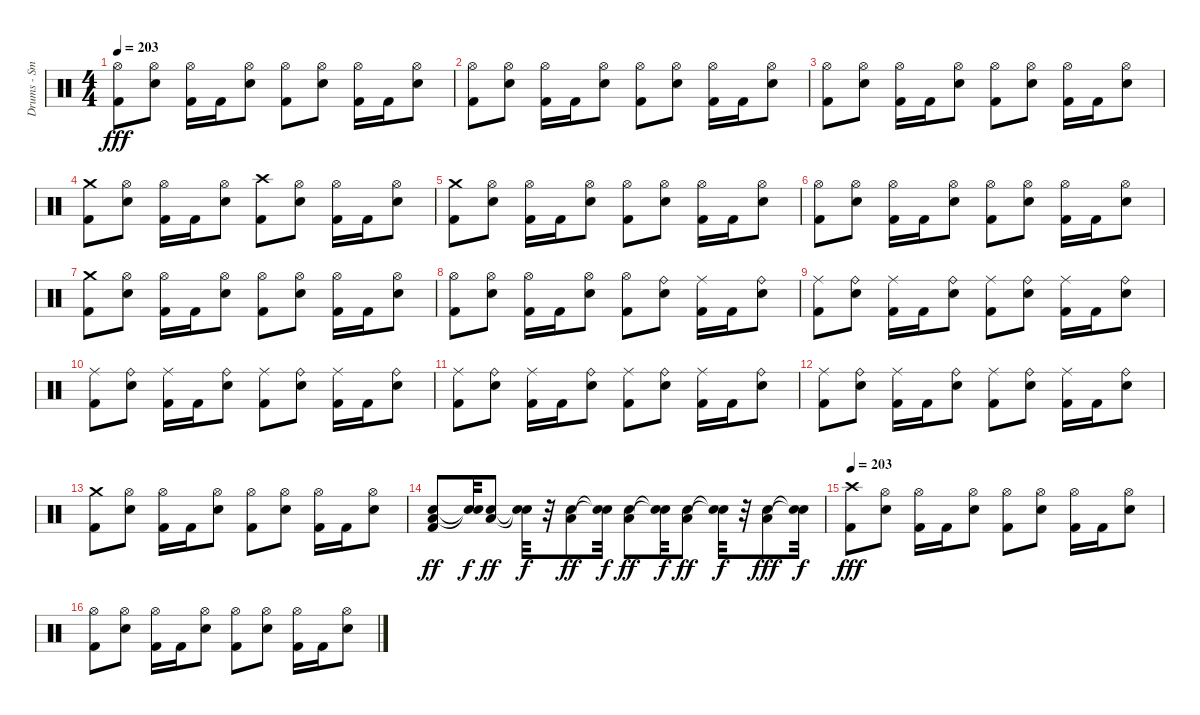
\track ("Drums - Smelly" "Drums - Sm") {instrument percussion}
\staff {score}
\articulation defaults
\ts (4 4)
\tempo 203
\clef neutral
\ks c
("Kick (hit) 2" "Hi-Hat (open)").8{dy fff} ("Electric Snare (hit)" "Hi-Hat (open)").8 ("Kick (hit) 2" "Hi-Hat (open)").16 "Kick (hit) 2".16 ("Electric Snare (hit)" "Hi-Hat (open)").8 ("Kick (hit) 2" "Hi-Hat (open)").8 ("Electric Snare (hit)" "Hi-Hat (open)").8 ("Kick (hit) 2" "Hi-Hat (open)").16 "Kick (hit) 2".16 ("Electric Snare (hit)" "Hi-Hat (open)").8 |
("Kick (hit) 2" "Hi-Hat (open)").8 ("Electric Snare (hit)" "Hi-Hat (open)").8 ("Kick (hit) 2" "Hi-Hat (open)").16 "Kick (hit) 2".16 ("Electric Snare (hit)" "Hi-Hat (open)").8 ("Kick (hit) 2" "Hi-Hat (open)").8 ("Electric Snare (hit)" "Hi-Hat (open)").8 ("Kick (hit) 2" "Hi-Hat (open)").16 "Kick (hit) 2".16 ("Electric Snare (hit)" "Hi-Hat (open)").8 |
("Kick (hit) 2" "Hi-Hat (open)").8 ("Electric Snare (hit)" "Hi-Hat (open)").8 ("Kick (hit) 2" "Hi-Hat (open)").16 "Kick (hit) 2".16 ("Electric Snare (hit)" "Hi-Hat (open)").8 ("Kick (hit) 2" "Hi-Hat (open)").8 ("Electric Snare (hit)" "Hi-Hat (open)").8 ("Kick (hit) 2" "Hi-Hat (open)").16 "Kick (hit) 2".16 ("Electric Snare (hit)" "Hi-Hat (open)").8 |
("Kick (hit) 2" "Crash medium (hit)").8 ("Electric Snare (hit)" "Hi-Hat (open)").8 ("Kick (hit) 2" "Hi-Hat (open)").16 "Kick (hit) 2".16 ("Electric Snare (hit)" "Hi-Hat (open)").8 ("Kick (hit) 2" "Crash high (hit)").8 ("Electric Snare (hit)" "Hi-Hat (open)").8 ("Kick (hit) 2" "Hi-Hat (open)").16 "Kick (hit) 2".16 ("Electric Snare (hit)" "Hi-Hat (open)").8 |
("Kick (hit) 2" "Crash medium (hit)").8 ("Electric Snare (hit)" "Hi-Hat (open)").8 ("Kick (hit) 2" "Hi-Hat (open)").16 "Kick (hit) 2".16 ("Electric Snare (hit)" "Hi-Hat (open)").8 ("Kick (hit) 2" "Hi-Hat (open)").8 ("Electric Snare (hit)" "Hi-Hat (open)").8 ("Kick (hit) 2" "Hi-Hat (open)").16 "Kick (hit) 2".16 ("Electric Snare (hit)" "Hi-Hat (open)").8 |
("Kick (hit) 2" "Hi-Hat (open)").8 ("Electric Snare (hit)" "Hi-Hat (open)").8 ("Kick (hit) 2" "Hi-Hat (open)").16 "Kick (hit) 2".16 ("Electric Snare (hit)" "Hi-Hat (open)").8 ("Kick (hit) 2" "Hi-Hat (open)").8 ("Electric Snare (hit)" "Hi-Hat (open)").8 ("Kick (hit) 2" "Hi-Hat (open)").16 "Kick (hit) 2".16 ("Electric Snare (hit)" "Hi-Hat (open)").8 |
("Kick (hit) 2" "Crash medium (hit)").8 ("Electric Snare (hit)" "Hi-Hat (open)").8 ("Kick (hit) 2" "Hi-Hat (open)").16 "Kick (hit) 2".16 ("Electric Snare (hit)" "Hi-Hat (open)").8 ("Kick (hit) 2" "Hi-Hat (open)").8 ("Electric Snare (hit)" "Hi-Hat (open)").8 ("Kick (hit) 2" "Hi-Hat (open)").16 "Kick (hit) 2".16 ("Electric Snare (hit)" "Hi-Hat (open)").8 |
("Kick (hit) 2" "Hi-Hat (open)").8 ("Electric Snare (hit)" "Hi-Hat (open)").8 ("Kick (hit) 2" "Hi-Hat (open)").16 "Kick (hit) 2".16 ("Electric Snare (hit)" "Hi-Hat (open)").8 ("Kick (hit) 2" "Hi-Hat (open)").8 ("Electric Snare (hit)" "Ride (bell)").8 ("Ride (middle)" "Kick (hit) 2").16 "Kick (hit) 2".16 ("Electric Snare (hit)" "Ride (bell)").8 |
("Ride (middle)" "Kick (hit) 2").8 ("Electric Snare (hit)" "Ride (bell)").8 ("Ride (middle)" "Kick (hit) 2").16 "Kick (hit) 2".16 ("Electric Snare (hit)" "Ride (bell)").8 ("Ride (middle)" "Kick (hit) 2").8 ("Electric Snare (hit)" "Ride (bell)").8 ("Ride (middle)" "Kick (hit) 2").16 "Kick (hit) 2".16 ("Electric Snare (hit)" "Ride (bell)").8 |
("Ride (middle)" "Kick (hit) 2").8 ("Electric Snare (hit)" "Ride (bell)").8 ("Ride (middle)" "Kick (hit) 2").16 "Kick (hit) 2".16 ("Electric Snare (hit)" "Ride (bell)").8 ("Ride (middle)" "Kick (hit) 2").8 ("Electric Snare (hit)" "Ride (bell)").8 ("Ride (middle)" "Kick (hit) 2").16 "Kick (hit) 2".16 ("Electric Snare (hit)" "Ride (bell)").8 |
("Ride (middle)" "Kick (hit) 2").8 ("Electric Snare (hit)" "Ride (bell)").8 ("Ride (middle)" "Kick (hit) 2").16 "Kick (hit) 2".16 ("Electric Snare (hit)" "Ride (bell)").8 ("Ride (middle)" "Kick (hit) 2").8 ("Electric Snare (hit)" "Ride (bell)").8 ("Ride (middle)" "Kick (hit) 2").16 "Kick (hit) 2".16 ("Electric Snare (hit)" "Ride (bell)").8 |
("Ride (middle)" "Kick (hit) 2").8 ("Electric Snare (hit)" "Ride (bell)").8 ("Ride (middle)" "Kick (hit) 2").16 "Kick (hit) 2".16 ("Electric Snare (hit)" "Ride (bell)").8 ("Ride (middle)" "Kick (hit) 2").8 ("Electric Snare (hit)" "Ride (bell)").8 ("Ride (middle)" "Kick (hit) 2").16 "Kick (hit) 2".16 ("Electric Snare (hit)" "Ride (bell)").8 |
("Kick (hit) 2" "Crash medium (hit)").8 ("Electric Snare (hit)" "Hi-Hat (open)").8 ("Kick (hit) 2" "Hi-Hat (open)").16 "Kick (hit) 2".16 ("Electric Snare (hit)" "Hi-Hat (open)").8 ("Kick (hit) 2" "Hi-Hat (open)").8 ("Electric Snare (hit)" "Hi-Hat (open)").8 ("Kick (hit) 2" "Hi-Hat (open)").16 "Kick (hit) 2".16 ("Electric Snare (hit)" "Hi-Hat (open)").8 |
("Electric Snare (hit)" "Low Floor Tom (hit)" "Kick (hit) 2").8{dy ff} ("Snare (hit)"{t} "Snare (hit)"{t}).32{dy f} ("Electric Snare (hit)" "Low Floor Tom (hit)").8{dy ff} ("Snare (hit)"{t} "Snare (hit)"{t}).32{dy f} r.32 ("Electric Snare (hit)" "Low Floor Tom (hit)").8{dy ff} ("Snare (hit)"{t} "Snare (hit)"{t}).32{dy f} ("Electric Snare (hit)" "Low Floor Tom (hit)").8{dy ff} ("Snare (hit)"{t} "Snare (hit)"{t}).32{dy f} ("Low Floor Tom (hit)" "Electric Snare (hit)").8{dy ff} ("Snare (hit)"{t} "Snare (hit)"{t}).32{dy f} r.32 ("Electric Snare (hit)" "Low Floor Tom (hit)").8{dy fff} ("Snare (hit)"{t} "Snare (hit)"{t}).32{dy f} |
\tempo 203
("Kick (hit) 2" "Crash high (hit)").8{dy fff} ("Electric Snare (hit)" "Hi-Hat (open)").8 ("Kick (hit) 2" "Hi-Hat (open)").16 "Kick (hit) 2".16 ("Electric Snare (hit)" "Hi-Hat (open)").8 ("Kick (hit) 2" "Hi-Hat (open)").8 ("Electric Snare (hit)" "Hi-Hat (open)").8 ("Kick (hit) 2" "Hi-Hat (open)").16 "Kick (hit) 2".16 ("Electric Snare (hit)" "Hi-Hat (open)").8 |
("Kick (hit) 2" "Hi-Hat (open)").8 ("Electric Snare (hit)" "Hi-Hat (open)").8 ("Kick (hit) 2" "Hi-Hat (open)").16 "Kick (hit) 2".16 ("Electric Snare (hit)" "Hi-Hat (open)").8 ("Kick (hit) 2" "Hi-Hat (open)").8 ("Electric Snare (hit)" "Hi-Hat (open)").8 ("Kick (hit) 2" "Hi-Hat (open)").16 "Kick (hit) 2".16 ("Electric Snare (hit)" "Hi-Hat (open)").8
